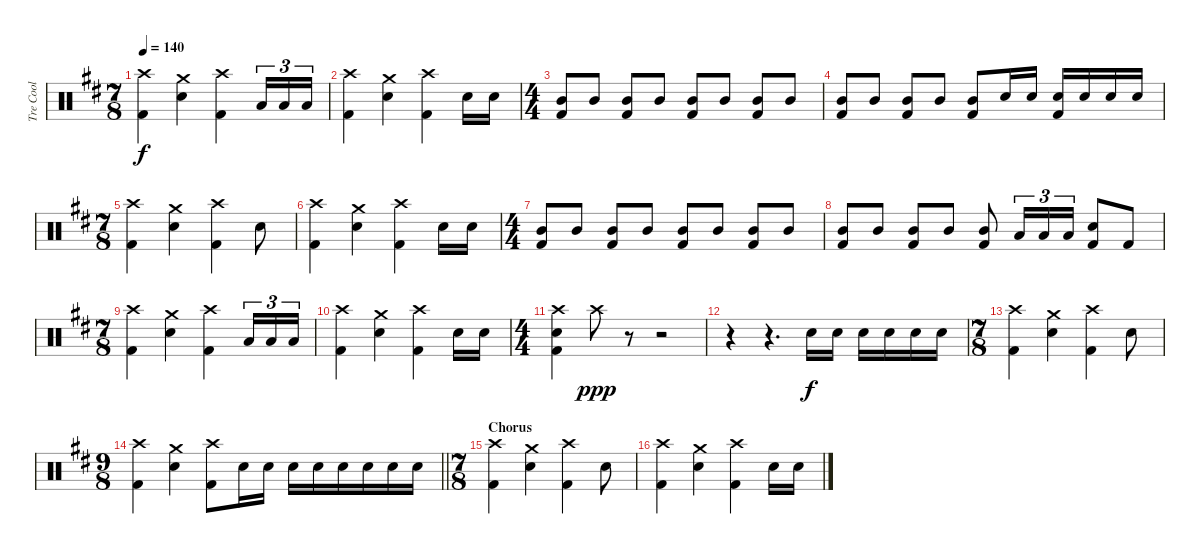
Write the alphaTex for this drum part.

\track ("Tre Cool" "Tre Cool") {instrument percussion}
\staff {score}
\articulation defaults
\ts (7 8)
\tempo 140
\clef neutral
\ks d
("Crash high (hit)" "Kick (hit) 2").4{dy f} ("Crash medium (hit)" "Electric Snare (hit)").4 ("Crash high (hit)" "Kick (hit) 2").4 "Low Tom (hit)".16{tu (3 2)} "Low Tom (hit)".16{tu (3 2)} "Low Tom (hit)".16{tu (3 2)} |
("Crash high (hit)" "Kick (hit) 2").4 ("Crash medium (hit)" "Electric Snare (hit)").4 ("Crash high (hit)" "Kick (hit) 2").4 "Electric Snare (hit)".16 "Electric Snare (hit)".16 |
\ts (4 4)
("Mid Tom (hit)" "Kick (hit) 2").8 "Mid Tom (hit)".8 ("Mid Tom (hit)" "Kick (hit) 2").8 "Mid Tom (hit)".8 ("Mid Tom (hit)" "Kick (hit) 2").8 "Mid Tom (hit)".8 ("Mid Tom (hit)" "Kick (hit) 2").8 "Mid Tom (hit)".8 |
("Mid Tom (hit)" "Kick (hit) 2").8 "Mid Tom (hit)".8 ("Mid Tom (hit)" "Kick (hit) 2").8 "Mid Tom (hit)".8 ("Mid Tom (hit)" "Kick (hit) 2").8 "Electric Snare (hit)".16 "Electric Snare (hit)".16 ("Electric Snare (hit)" "Kick (hit) 2").16 "Electric Snare (hit)".16 "Electric Snare (hit)".16 "Electric Snare (hit)".16 |
\ts (7 8)
("Crash high (hit)" "Kick (hit) 2").4 ("Crash medium (hit)" "Electric Snare (hit)").4 ("Crash high (hit)" "Kick (hit) 2").4 "Electric Snare (hit)".8 |
("Crash high (hit)" "Kick (hit) 2").4 ("Crash medium (hit)" "Electric Snare (hit)").4 ("Crash high (hit)" "Kick (hit) 2").4 "Electric Snare (hit)".16 "Electric Snare (hit)".16 |
\ts (4 4)
("Mid Tom (hit)" "Kick (hit) 2").8 "Mid Tom (hit)".8 ("Mid Tom (hit)" "Kick (hit) 2").8 "Mid Tom (hit)".8 ("Mid Tom (hit)" "Kick (hit) 2").8 "Mid Tom (hit)".8 ("Mid Tom (hit)" "Kick (hit) 2").8 "Mid Tom (hit)".8 |
("Mid Tom (hit)" "Kick (hit) 2").8 "Mid Tom (hit)".8 ("Mid Tom (hit)" "Kick (hit) 2").8 "Mid Tom (hit)".8 ("Mid Tom (hit)" "Kick (hit) 2").8 "Low Tom (hit)".16{tu (3 2)} "Low Tom (hit)".16{tu (3 2)} "Low Tom (hit)".16{tu (3 2)} ("Electric Snare (hit)" "Kick (hit) 2").8 "Kick (hit) 2".8 |
\ts (7 8)
("Crash high (hit)" "Kick (hit) 2").4 ("Crash medium (hit)" "Electric Snare (hit)").4 ("Crash high (hit)" "Kick (hit) 2").4 "Low Tom (hit)".16{tu (3 2)} "Low Tom (hit)".16{tu (3 2)} "Low Tom (hit)".16{tu (3 2)} |
("Crash high (hit)" "Kick (hit) 2").4 ("Crash medium (hit)" "Electric Snare (hit)").4 ("Crash high (hit)" "Kick (hit) 2").4 "Electric Snare (hit)".16 "Electric Snare (hit)".16 |
\ts (4 4)
("Electric Snare (hit)" "Kick (hit) 2" "Crash high (hit)").4 "Crash high (hit)".8{dy ppp} r.8 r.2 |
r.4 r.4{d} "Electric Snare (hit)".16{dy f} "Electric Snare (hit)".16 "Electric Snare (hit)".16 "Electric Snare (hit)".16 "Electric Snare (hit)".16 "Electric Snare (hit)".16 |
\ts (7 8)
("Crash high (hit)" "Kick (hit) 2").4 ("Crash medium (hit)" "Electric Snare (hit)").4 ("Crash high (hit)" "Kick (hit) 2").4 "Electric Snare (hit)".8 |
\ts (9 8)
\barLineRight lightlight
("Crash high (hit)" "Kick (hit) 2").4 ("Crash medium (hit)" "Electric Snare (hit)").4 ("Crash high (hit)" "Kick (hit) 2").8 "Electric Snare (hit)".16 "Electric Snare (hit)".16 "Electric Snare (hit)".16 "Electric Snare (hit)".16 "Electric Snare (hit)".16 "Electric Snare (hit)".16 "Electric Snare (hit)".16 "Electric Snare (hit)".16 |
\ts (7 8)
\section ("" "Chorus")
("Crash high (hit)" "Kick (hit) 2").4 ("Crash medium (hit)" "Electric Snare (hit)").4 ("Crash high (hit)" "Kick (hit) 2").4 "Electric Snare (hit)".8 |
("Crash high (hit)" "Kick (hit) 2").4 ("Crash medium (hit)" "Electric Snare (hit)").4 ("Crash high (hit)" "Kick (hit) 2").4 "Electric Snare (hit)".16 "Electric Snare (hit)".16
